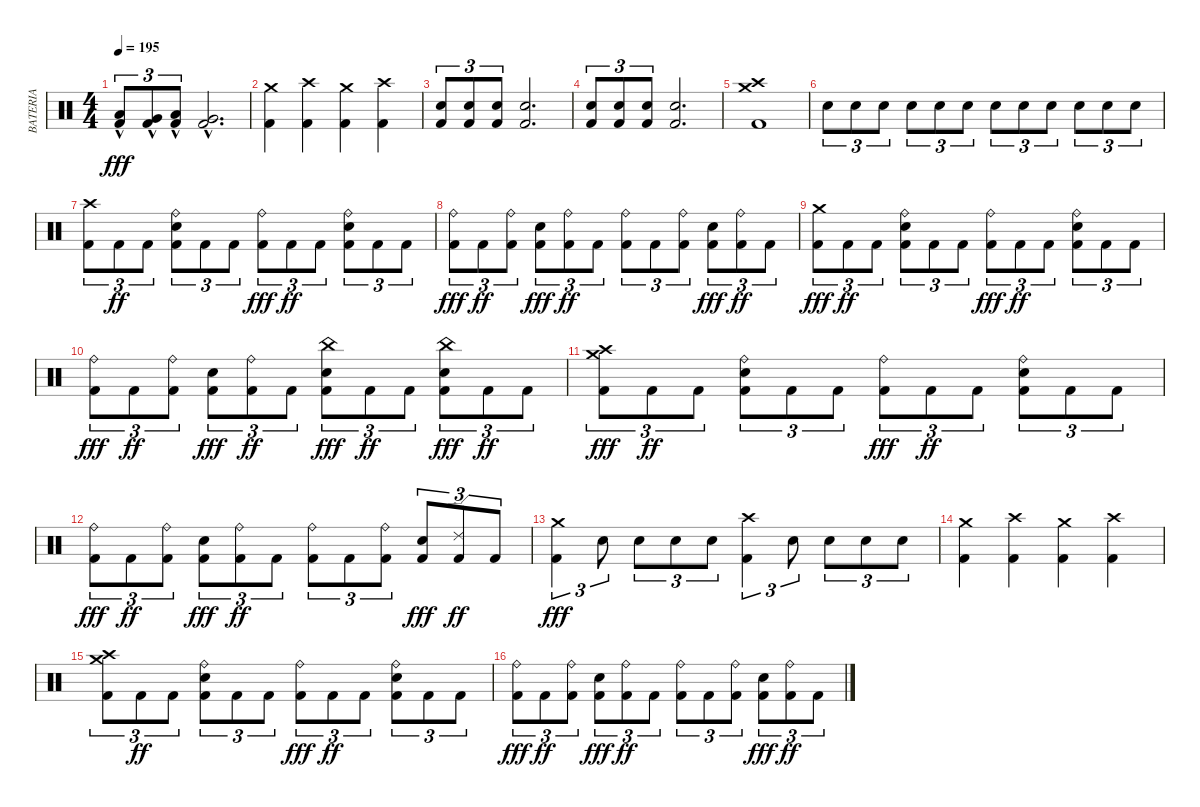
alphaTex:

\track ("BATERIA" "BATERIA") {instrument percussion}
\staff
\articulation defaults
\ts (4 4)
\tempo 195
\clef neutral
\ks c
("Kick (hit) 2" "Low Floor Tom (hit)"{hac}).8{tu (3 2) dy fff} ("Kick (hit) 2" "Very Low Tom (hit)"{hac}).8{tu (3 2)} ("Kick (hit) 2" "Low Floor Tom (hit)"{hac}).8{tu (3 2)} ("Kick (hit) 2" "Very Low Tom (hit)"{hac}).2{d} |
("Kick (hit) 2" "Crash medium (hit)").4 ("Kick (hit) 2" "Crash high (hit)").4 ("Kick (hit) 2" "Crash medium (hit)").4 ("Kick (hit) 2" "Crash high (hit)").4 |
("Kick (hit) 2" "Electric Snare (hit)").8{tu (3 2)} ("Kick (hit) 2" "Electric Snare (hit)").8{tu (3 2)} ("Kick (hit) 2" "Electric Snare (hit)").8{tu (3 2)} ("Kick (hit) 2" "Electric Snare (hit)").2{d} |
("Kick (hit) 2" "Electric Snare (hit)").8{tu (3 2)} ("Kick (hit) 2" "Electric Snare (hit)").8{tu (3 2)} ("Kick (hit) 2" "Electric Snare (hit)").8{tu (3 2)} ("Kick (hit) 2" "Electric Snare (hit)").2{d} |
("Kick (hit) 2" "Crash medium (hit)" "Crash high (hit)").1 |
"Electric Snare (hit)".8{tu (3 2)} "Electric Snare (hit)".8{tu (3 2)} "Electric Snare (hit)".8{tu (3 2)} "Electric Snare (hit)".8{tu (3 2)} "Electric Snare (hit)".8{tu (3 2)} "Electric Snare (hit)".8{tu (3 2)} "Electric Snare (hit)".8{tu (3 2)} "Electric Snare (hit)".8{tu (3 2)} "Electric Snare (hit)".8{tu (3 2)} "Electric Snare (hit)".8{tu (3 2)} "Electric Snare (hit)".8{tu (3 2)} "Electric Snare (hit)".8{tu (3 2)} |
("Kick (hit) 2" "Crash high (hit)").8{tu (3 2)} "Kick (hit) 2".8{tu (3 2) dy ff} "Kick (hit) 2".8{tu (3 2)} ("Kick (hit) 2" "Electric Snare (hit)" "Ride (bell)").8{tu (3 2)} "Kick (hit) 2".8{tu (3 2)} "Kick (hit) 2".8{tu (3 2)} ("Kick (hit) 2" "Ride (bell)").8{tu (3 2) dy fff} "Kick (hit) 2".8{tu (3 2) dy ff} "Kick (hit) 2".8{tu (3 2)} ("Kick (hit) 2" "Electric Snare (hit)" "Ride (bell)").8{tu (3 2)} "Kick (hit) 2".8{tu (3 2)} "Kick (hit) 2".8{tu (3 2)} |
("Kick (hit) 2" "Ride (bell)").8{tu (3 2) dy fff} "Kick (hit) 2".8{tu (3 2) dy ff} ("Kick (hit) 2" "Ride (bell)").8{tu (3 2)} ("Kick (hit) 2" "Electric Snare (hit)").8{tu (3 2) dy fff} ("Kick (hit) 2" "Ride (bell)").8{tu (3 2) dy ff} "Kick (hit) 2".8{tu (3 2)} ("Kick (hit) 2" "Ride (bell)").8{tu (3 2)} "Kick (hit) 2".8{tu (3 2)} ("Kick (hit) 2" "Ride (bell)").8{tu (3 2)} ("Kick (hit) 2" "Electric Snare (hit)").8{tu (3 2) dy fff} ("Kick (hit) 2" "Ride (bell)").8{tu (3 2) dy ff} "Kick (hit) 2".8{tu (3 2)} |
("Kick (hit) 2" "Crash medium (hit)").8{tu (3 2) dy fff} "Kick (hit) 2".8{tu (3 2) dy ff} "Kick (hit) 2".8{tu (3 2)} ("Kick (hit) 2" "Electric Snare (hit)" "Ride (bell)").8{tu (3 2)} "Kick (hit) 2".8{tu (3 2)} "Kick (hit) 2".8{tu (3 2)} ("Kick (hit) 2" "Ride (bell)").8{tu (3 2) dy fff} "Kick (hit) 2".8{tu (3 2) dy ff} "Kick (hit) 2".8{tu (3 2)} ("Kick (hit) 2" "Electric Snare (hit)" "Ride (bell)").8{tu (3 2)} "Kick (hit) 2".8{tu (3 2)} "Kick (hit) 2".8{tu (3 2)} |
("Kick (hit) 2" "Ride (bell)").8{tu (3 2) dy fff} "Kick (hit) 2".8{tu (3 2) dy ff} ("Kick (hit) 2" "Ride (bell)").8{tu (3 2)} ("Kick (hit) 2" "Electric Snare (hit)").8{tu (3 2) dy fff} ("Kick (hit) 2" "Ride (bell)").8{tu (3 2) dy ff} "Kick (hit) 2".8{tu (3 2)} ("Kick (hit) 2" "Electric Snare (hit)" "China (hit)").8{tu (3 2) dy fff} "Kick (hit) 2".8{tu (3 2) dy ff} "Kick (hit) 2".8{tu (3 2)} ("Kick (hit) 2" "Electric Snare (hit)" "China (hit)").8{tu (3 2) dy fff} "Kick (hit) 2".8{tu (3 2) dy ff} "Kick (hit) 2".8{tu (3 2)} |
("Kick (hit) 2" "Crash high (hit)" "Crash medium (hit)").8{tu (3 2) dy fff} "Kick (hit) 2".8{tu (3 2) dy ff} "Kick (hit) 2".8{tu (3 2)} ("Kick (hit) 2" "Electric Snare (hit)" "Ride (bell)").8{tu (3 2)} "Kick (hit) 2".8{tu (3 2)} "Kick (hit) 2".8{tu (3 2)} ("Kick (hit) 2" "Ride (bell)").8{tu (3 2) dy fff} "Kick (hit) 2".8{tu (3 2) dy ff} "Kick (hit) 2".8{tu (3 2)} ("Kick (hit) 2" "Electric Snare (hit)" "Ride (bell)").8{tu (3 2)} "Kick (hit) 2".8{tu (3 2)} "Kick (hit) 2".8{tu (3 2)} |
("Kick (hit) 2" "Ride (bell)").8{tu (3 2) dy fff} "Kick (hit) 2".8{tu (3 2) dy ff} ("Kick (hit) 2" "Ride (bell)").8{tu (3 2)} ("Kick (hit) 2" "Electric Snare (hit)").8{tu (3 2) dy fff} ("Kick (hit) 2" "Ride (bell)").8{tu (3 2) dy ff} "Kick (hit) 2".8{tu (3 2)} ("Kick (hit) 2" "Ride (bell)").8{tu (3 2)} "Kick (hit) 2".8{tu (3 2)} ("Kick (hit) 2" "Ride (bell)").8{tu (3 2)} ("Kick (hit) 2" "Electric Snare (hit)").8{tu (3 2) dy fff} ("Kick (hit) 2" "Ride (edge) 2").8{tu (3 2) dy ff} "Kick (hit) 2".8{tu (3 2)} |
("Kick (hit) 2" "Crash medium (hit)").4{tu (3 2) dy fff} "Electric Snare (hit)".8{tu (3 2)} "Electric Snare (hit)".8{tu (3 2)} "Electric Snare (hit)".8{tu (3 2)} "Electric Snare (hit)".8{tu (3 2)} ("Kick (hit) 2" "Crash high (hit)").4{tu (3 2)} "Electric Snare (hit)".8{tu (3 2)} "Electric Snare (hit)".8{tu (3 2)} "Electric Snare (hit)".8{tu (3 2)} "Electric Snare (hit)".8{tu (3 2)} |
("Kick (hit) 2" "Crash medium (hit)").4 ("Kick (hit) 2" "Crash high (hit)").4 ("Kick (hit) 2" "Crash medium (hit)").4 ("Kick (hit) 2" "Crash high (hit)").4 |
("Kick (hit) 2" "Crash medium (hit)" "Crash high (hit)").8{tu (3 2)} "Kick (hit) 2".8{tu (3 2) dy ff} "Kick (hit) 2".8{tu (3 2)} ("Kick (hit) 2" "Electric Snare (hit)" "Ride (bell)").8{tu (3 2)} "Kick (hit) 2".8{tu (3 2)} "Kick (hit) 2".8{tu (3 2)} ("Kick (hit) 2" "Ride (bell)").8{tu (3 2) dy fff} "Kick (hit) 2".8{tu (3 2) dy ff} "Kick (hit) 2".8{tu (3 2)} ("Kick (hit) 2" "Electric Snare (hit)" "Ride (bell)").8{tu (3 2)} "Kick (hit) 2".8{tu (3 2)} "Kick (hit) 2".8{tu (3 2)} |
("Kick (hit) 2" "Ride (bell)").8{tu (3 2) dy fff} "Kick (hit) 2".8{tu (3 2) dy ff} ("Kick (hit) 2" "Ride (bell)").8{tu (3 2)} ("Kick (hit) 2" "Electric Snare (hit)").8{tu (3 2) dy fff} ("Kick (hit) 2" "Ride (bell)").8{tu (3 2) dy ff} "Kick (hit) 2".8{tu (3 2)} ("Kick (hit) 2" "Ride (bell)").8{tu (3 2)} "Kick (hit) 2".8{tu (3 2)} ("Kick (hit) 2" "Ride (bell)").8{tu (3 2)} ("Kick (hit) 2" "Electric Snare (hit)").8{tu (3 2) dy fff} ("Kick (hit) 2" "Ride (bell)").8{tu (3 2) dy ff} "Kick (hit) 2".8{tu (3 2)}
